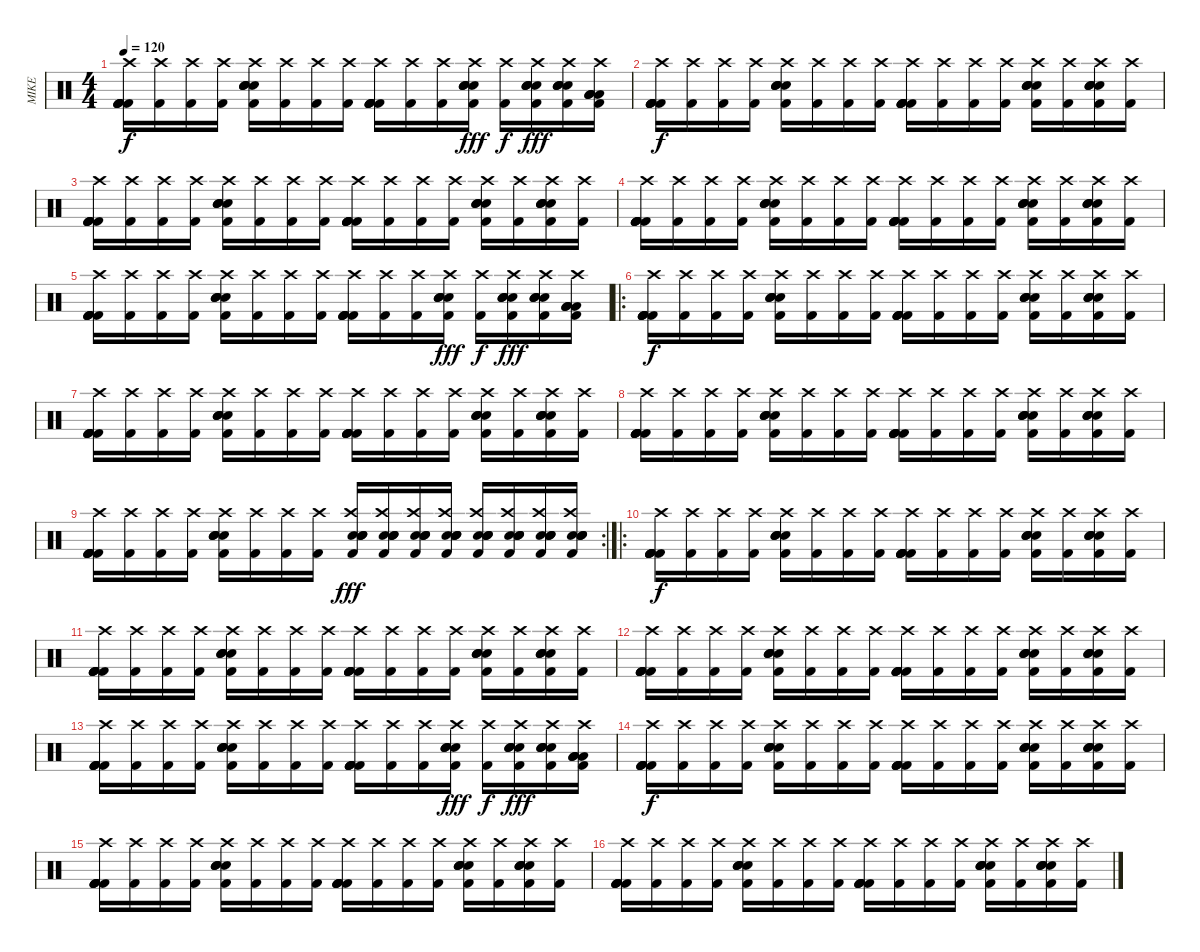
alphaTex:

\track ("MIKE" "MIKE") {instrument percussion}
\staff {score}
\articulation defaults
\ts (4 4)
\tempo 120
\clef neutral
\ks c
("Kick (hit) 2" "Kick (hit) 2" "Kick (hit) 2" "Kick (hit) 2" "Kick (hit) 2" "Crash high (hit)").16{dy f} ("Kick (hit) 2" "Crash high (hit)").16 ("Kick (hit) 2" "Crash high (hit)").16 ("Kick (hit) 2" "Crash high (hit)").16 ("Electric Snare (hit)" "Electric Snare (hit)" "Electric Snare (hit)" "Electric Snare (hit)" "Kick (hit) 2" "Crash high (hit)").16 ("Kick (hit) 2" "Crash high (hit)").16 ("Kick (hit) 2" "Crash high (hit)").16 ("Kick (hit) 2" "Crash high (hit)").16 ("Kick (hit) 2" "Kick (hit) 2" "Kick (hit) 2" "Kick (hit) 2" "Kick (hit) 2" "Crash high (hit)").16 ("Kick (hit) 2" "Crash high (hit)").16 ("Kick (hit) 2" "Crash high (hit)").16 ("Electric Snare (hit)" "Electric Snare (hit)" "Electric Snare (hit)" "Electric Snare (hit)" "Kick (hit) 2" "Crash high (hit)").16{dy fff} ("Kick (hit) 2" "Crash high (hit)").16{dy f} ("Electric Snare (hit)" "Electric Snare (hit)" "Electric Snare (hit)" "Electric Snare (hit)" "Kick (hit) 2" "Crash high (hit)").16{dy fff} ("Electric Snare (hit)" "Electric Snare (hit)" "Electric Snare (hit)" "Electric Snare (hit)" "Kick (hit) 2" "Crash high (hit)").16 ("Low Floor Tom (hit)" "Low Floor Tom (hit)" "Low Floor Tom (hit)" "Low Floor Tom (hit)" "Kick (hit) 2" "Crash high (hit)").16 |
("Kick (hit) 2" "Kick (hit) 2" "Kick (hit) 2" "Kick (hit) 2" "Kick (hit) 2" "Crash high (hit)").16{dy f} ("Kick (hit) 2" "Crash high (hit)").16 ("Kick (hit) 2" "Crash high (hit)").16 ("Kick (hit) 2" "Crash high (hit)").16 ("Electric Snare (hit)" "Electric Snare (hit)" "Electric Snare (hit)" "Electric Snare (hit)" "Kick (hit) 2" "Crash high (hit)").16 ("Kick (hit) 2" "Crash high (hit)").16 ("Kick (hit) 2" "Crash high (hit)").16 ("Kick (hit) 2" "Crash high (hit)").16 ("Kick (hit) 2" "Kick (hit) 2" "Kick (hit) 2" "Kick (hit) 2" "Kick (hit) 2" "Crash high (hit)").16 ("Kick (hit) 2" "Crash high (hit)").16 ("Kick (hit) 2" "Crash high (hit)").16 ("Kick (hit) 2" "Crash high (hit)").16 ("Electric Snare (hit)" "Electric Snare (hit)" "Electric Snare (hit)" "Electric Snare (hit)" "Kick (hit) 2" "Crash high (hit)").16 ("Kick (hit) 2" "Crash high (hit)").16 ("Electric Snare (hit)" "Electric Snare (hit)" "Electric Snare (hit)" "Electric Snare (hit)" "Kick (hit) 2" "Crash high (hit)").16 ("Kick (hit) 2" "Crash high (hit)").16 |
("Kick (hit) 2" "Kick (hit) 2" "Kick (hit) 2" "Kick (hit) 2" "Kick (hit) 2" "Crash high (hit)").16 ("Kick (hit) 2" "Crash high (hit)").16 ("Kick (hit) 2" "Crash high (hit)").16 ("Kick (hit) 2" "Crash high (hit)").16 ("Electric Snare (hit)" "Electric Snare (hit)" "Electric Snare (hit)" "Electric Snare (hit)" "Kick (hit) 2" "Crash high (hit)").16 ("Kick (hit) 2" "Crash high (hit)").16 ("Kick (hit) 2" "Crash high (hit)").16 ("Kick (hit) 2" "Crash high (hit)").16 ("Kick (hit) 2" "Kick (hit) 2" "Kick (hit) 2" "Kick (hit) 2" "Kick (hit) 2" "Crash high (hit)").16 ("Kick (hit) 2" "Crash high (hit)").16 ("Kick (hit) 2" "Crash high (hit)").16 ("Kick (hit) 2" "Crash high (hit)").16 ("Electric Snare (hit)" "Electric Snare (hit)" "Electric Snare (hit)" "Electric Snare (hit)" "Kick (hit) 2" "Crash high (hit)").16 ("Kick (hit) 2" "Crash high (hit)").16 ("Electric Snare (hit)" "Electric Snare (hit)" "Electric Snare (hit)" "Electric Snare (hit)" "Kick (hit) 2" "Crash high (hit)").16 ("Kick (hit) 2" "Crash high (hit)").16 |
("Kick (hit) 2" "Kick (hit) 2" "Kick (hit) 2" "Kick (hit) 2" "Kick (hit) 2" "Crash high (hit)").16 ("Kick (hit) 2" "Crash high (hit)").16 ("Kick (hit) 2" "Crash high (hit)").16 ("Kick (hit) 2" "Crash high (hit)").16 ("Electric Snare (hit)" "Electric Snare (hit)" "Electric Snare (hit)" "Electric Snare (hit)" "Kick (hit) 2" "Crash high (hit)").16 ("Kick (hit) 2" "Crash high (hit)").16 ("Kick (hit) 2" "Crash high (hit)").16 ("Kick (hit) 2" "Crash high (hit)").16 ("Kick (hit) 2" "Kick (hit) 2" "Kick (hit) 2" "Kick (hit) 2" "Kick (hit) 2" "Crash high (hit)").16 ("Kick (hit) 2" "Crash high (hit)").16 ("Kick (hit) 2" "Crash high (hit)").16 ("Kick (hit) 2" "Crash high (hit)").16 ("Electric Snare (hit)" "Electric Snare (hit)" "Electric Snare (hit)" "Electric Snare (hit)" "Kick (hit) 2" "Crash high (hit)").16 ("Kick (hit) 2" "Crash high (hit)").16 ("Electric Snare (hit)" "Electric Snare (hit)" "Electric Snare (hit)" "Electric Snare (hit)" "Kick (hit) 2" "Crash high (hit)").16 ("Kick (hit) 2" "Crash high (hit)").16 |
("Kick (hit) 2" "Kick (hit) 2" "Kick (hit) 2" "Kick (hit) 2" "Kick (hit) 2" "Crash high (hit)").16 ("Kick (hit) 2" "Crash high (hit)").16 ("Kick (hit) 2" "Crash high (hit)").16 ("Kick (hit) 2" "Crash high (hit)").16 ("Electric Snare (hit)" "Electric Snare (hit)" "Electric Snare (hit)" "Electric Snare (hit)" "Kick (hit) 2" "Crash high (hit)").16 ("Kick (hit) 2" "Crash high (hit)").16 ("Kick (hit) 2" "Crash high (hit)").16 ("Kick (hit) 2" "Crash high (hit)").16 ("Kick (hit) 2" "Kick (hit) 2" "Kick (hit) 2" "Kick (hit) 2" "Kick (hit) 2" "Crash high (hit)").16 ("Kick (hit) 2" "Crash high (hit)").16 ("Kick (hit) 2" "Crash high (hit)").16 ("Electric Snare (hit)" "Electric Snare (hit)" "Electric Snare (hit)" "Electric Snare (hit)" "Kick (hit) 2" "Crash high (hit)").16{dy fff} ("Kick (hit) 2" "Crash high (hit)").16{dy f} ("Electric Snare (hit)" "Electric Snare (hit)" "Electric Snare (hit)" "Electric Snare (hit)" "Kick (hit) 2" "Crash high (hit)").16{dy fff} ("Electric Snare (hit)" "Electric Snare (hit)" "Electric Snare (hit)" "Electric Snare (hit)" "Kick (hit) 2" "Crash high (hit)").16 ("Low Floor Tom (hit)" "Low Floor Tom (hit)" "Low Floor Tom (hit)" "Low Floor Tom (hit)" "Kick (hit) 2" "Crash high (hit)").16 |
\ro
("Kick (hit) 2" "Kick (hit) 2" "Kick (hit) 2" "Kick (hit) 2" "Kick (hit) 2" "Crash high (hit)").16{dy f} ("Kick (hit) 2" "Crash high (hit)").16 ("Kick (hit) 2" "Crash high (hit)").16 ("Kick (hit) 2" "Crash high (hit)").16 ("Electric Snare (hit)" "Electric Snare (hit)" "Electric Snare (hit)" "Electric Snare (hit)" "Kick (hit) 2" "Crash high (hit)").16 ("Kick (hit) 2" "Crash high (hit)").16 ("Kick (hit) 2" "Crash high (hit)").16 ("Kick (hit) 2" "Crash high (hit)").16 ("Kick (hit) 2" "Kick (hit) 2" "Kick (hit) 2" "Kick (hit) 2" "Kick (hit) 2" "Crash high (hit)").16 ("Kick (hit) 2" "Crash high (hit)").16 ("Kick (hit) 2" "Crash high (hit)").16 ("Kick (hit) 2" "Crash high (hit)").16 ("Electric Snare (hit)" "Electric Snare (hit)" "Electric Snare (hit)" "Electric Snare (hit)" "Kick (hit) 2" "Crash high (hit)").16 ("Kick (hit) 2" "Crash high (hit)").16 ("Electric Snare (hit)" "Electric Snare (hit)" "Electric Snare (hit)" "Electric Snare (hit)" "Kick (hit) 2" "Crash high (hit)").16 ("Kick (hit) 2" "Crash high (hit)").16 |
("Kick (hit) 2" "Kick (hit) 2" "Kick (hit) 2" "Kick (hit) 2" "Kick (hit) 2" "Crash high (hit)").16 ("Kick (hit) 2" "Crash high (hit)").16 ("Kick (hit) 2" "Crash high (hit)").16 ("Kick (hit) 2" "Crash high (hit)").16 ("Electric Snare (hit)" "Electric Snare (hit)" "Electric Snare (hit)" "Electric Snare (hit)" "Kick (hit) 2" "Crash high (hit)").16 ("Kick (hit) 2" "Crash high (hit)").16 ("Kick (hit) 2" "Crash high (hit)").16 ("Kick (hit) 2" "Crash high (hit)").16 ("Kick (hit) 2" "Kick (hit) 2" "Kick (hit) 2" "Kick (hit) 2" "Kick (hit) 2" "Crash high (hit)").16 ("Kick (hit) 2" "Crash high (hit)").16 ("Kick (hit) 2" "Crash high (hit)").16 ("Kick (hit) 2" "Crash high (hit)").16 ("Electric Snare (hit)" "Electric Snare (hit)" "Electric Snare (hit)" "Electric Snare (hit)" "Kick (hit) 2" "Crash high (hit)").16 ("Kick (hit) 2" "Crash high (hit)").16 ("Electric Snare (hit)" "Electric Snare (hit)" "Electric Snare (hit)" "Electric Snare (hit)" "Kick (hit) 2" "Crash high (hit)").16 ("Kick (hit) 2" "Crash high (hit)").16 |
("Kick (hit) 2" "Kick (hit) 2" "Kick (hit) 2" "Kick (hit) 2" "Kick (hit) 2" "Crash high (hit)").16 ("Kick (hit) 2" "Crash high (hit)").16 ("Kick (hit) 2" "Crash high (hit)").16 ("Kick (hit) 2" "Crash high (hit)").16 ("Electric Snare (hit)" "Electric Snare (hit)" "Electric Snare (hit)" "Electric Snare (hit)" "Kick (hit) 2" "Crash high (hit)").16 ("Kick (hit) 2" "Crash high (hit)").16 ("Kick (hit) 2" "Crash high (hit)").16 ("Kick (hit) 2" "Crash high (hit)").16 ("Kick (hit) 2" "Kick (hit) 2" "Kick (hit) 2" "Kick (hit) 2" "Kick (hit) 2" "Crash high (hit)").16 ("Kick (hit) 2" "Crash high (hit)").16 ("Kick (hit) 2" "Crash high (hit)").16 ("Kick (hit) 2" "Crash high (hit)").16 ("Electric Snare (hit)" "Electric Snare (hit)" "Electric Snare (hit)" "Electric Snare (hit)" "Kick (hit) 2" "Crash high (hit)").16 ("Kick (hit) 2" "Crash high (hit)").16 ("Electric Snare (hit)" "Electric Snare (hit)" "Electric Snare (hit)" "Electric Snare (hit)" "Kick (hit) 2" "Crash high (hit)").16 ("Kick (hit) 2" "Crash high (hit)").16 |
\rc 2
("Kick (hit) 2" "Kick (hit) 2" "Kick (hit) 2" "Kick (hit) 2" "Kick (hit) 2" "Crash high (hit)").16 ("Kick (hit) 2" "Crash high (hit)").16 ("Kick (hit) 2" "Crash high (hit)").16 ("Kick (hit) 2" "Crash high (hit)").16 ("Electric Snare (hit)" "Electric Snare (hit)" "Electric Snare (hit)" "Electric Snare (hit)" "Kick (hit) 2" "Crash high (hit)").16 ("Kick (hit) 2" "Crash high (hit)").16 ("Kick (hit) 2" "Crash high (hit)").16 ("Kick (hit) 2" "Crash high (hit)").16 ("Electric Snare (hit)" "Electric Snare (hit)" "Electric Snare (hit)" "Electric Snare (hit)" "Kick (hit) 2" "Crash high (hit)").16{dy fff} ("Electric Snare (hit)" "Electric Snare (hit)" "Electric Snare (hit)" "Electric Snare (hit)" "Kick (hit) 2" "Crash high (hit)").16 ("Electric Snare (hit)" "Electric Snare (hit)" "Electric Snare (hit)" "Electric Snare (hit)" "Kick (hit) 2" "Crash high (hit)").16 ("Electric Snare (hit)" "Electric Snare (hit)" "Electric Snare (hit)" "Electric Snare (hit)" "Kick (hit) 2" "Crash high (hit)").16 ("Electric Snare (hit)" "Electric Snare (hit)" "Electric Snare (hit)" "Electric Snare (hit)" "Kick (hit) 2" "Crash high (hit)").16 ("Electric Snare (hit)" "Electric Snare (hit)" "Electric Snare (hit)" "Electric Snare (hit)" "Kick (hit) 2" "Crash high (hit)").16 ("Electric Snare (hit)" "Electric Snare (hit)" "Electric Snare (hit)" "Electric Snare (hit)" "Kick (hit) 2" "Crash high (hit)").16 ("Electric Snare (hit)" "Electric Snare (hit)" "Electric Snare (hit)" "Electric Snare (hit)" "Kick (hit) 2" "Crash high (hit)").16 |
\ro
("Kick (hit) 2" "Kick (hit) 2" "Kick (hit) 2" "Kick (hit) 2" "Kick (hit) 2" "Crash high (hit)").16{dy f} ("Kick (hit) 2" "Crash high (hit)").16 ("Kick (hit) 2" "Crash high (hit)").16 ("Kick (hit) 2" "Crash high (hit)").16 ("Electric Snare (hit)" "Electric Snare (hit)" "Electric Snare (hit)" "Electric Snare (hit)" "Kick (hit) 2" "Crash high (hit)").16 ("Kick (hit) 2" "Crash high (hit)").16 ("Kick (hit) 2" "Crash high (hit)").16 ("Kick (hit) 2" "Crash high (hit)").16 ("Kick (hit) 2" "Kick (hit) 2" "Kick (hit) 2" "Kick (hit) 2" "Kick (hit) 2" "Crash high (hit)").16 ("Kick (hit) 2" "Crash high (hit)").16 ("Kick (hit) 2" "Crash high (hit)").16 ("Kick (hit) 2" "Crash high (hit)").16 ("Electric Snare (hit)" "Electric Snare (hit)" "Electric Snare (hit)" "Electric Snare (hit)" "Kick (hit) 2" "Crash high (hit)").16 ("Kick (hit) 2" "Crash high (hit)").16 ("Electric Snare (hit)" "Electric Snare (hit)" "Electric Snare (hit)" "Electric Snare (hit)" "Kick (hit) 2" "Crash high (hit)").16 ("Kick (hit) 2" "Crash high (hit)").16 |
("Kick (hit) 2" "Kick (hit) 2" "Kick (hit) 2" "Kick (hit) 2" "Kick (hit) 2" "Crash high (hit)").16 ("Kick (hit) 2" "Crash high (hit)").16 ("Kick (hit) 2" "Crash high (hit)").16 ("Kick (hit) 2" "Crash high (hit)").16 ("Electric Snare (hit)" "Electric Snare (hit)" "Electric Snare (hit)" "Electric Snare (hit)" "Kick (hit) 2" "Crash high (hit)").16 ("Kick (hit) 2" "Crash high (hit)").16 ("Kick (hit) 2" "Crash high (hit)").16 ("Kick (hit) 2" "Crash high (hit)").16 ("Kick (hit) 2" "Kick (hit) 2" "Kick (hit) 2" "Kick (hit) 2" "Kick (hit) 2" "Crash high (hit)").16 ("Kick (hit) 2" "Crash high (hit)").16 ("Kick (hit) 2" "Crash high (hit)").16 ("Kick (hit) 2" "Crash high (hit)").16 ("Electric Snare (hit)" "Electric Snare (hit)" "Electric Snare (hit)" "Electric Snare (hit)" "Kick (hit) 2" "Crash high (hit)").16 ("Kick (hit) 2" "Crash high (hit)").16 ("Electric Snare (hit)" "Electric Snare (hit)" "Electric Snare (hit)" "Electric Snare (hit)" "Kick (hit) 2" "Crash high (hit)").16 ("Kick (hit) 2" "Crash high (hit)").16 |
("Kick (hit) 2" "Kick (hit) 2" "Kick (hit) 2" "Kick (hit) 2" "Kick (hit) 2" "Crash high (hit)").16 ("Kick (hit) 2" "Crash high (hit)").16 ("Kick (hit) 2" "Crash high (hit)").16 ("Kick (hit) 2" "Crash high (hit)").16 ("Electric Snare (hit)" "Electric Snare (hit)" "Electric Snare (hit)" "Electric Snare (hit)" "Kick (hit) 2" "Crash high (hit)").16 ("Kick (hit) 2" "Crash high (hit)").16 ("Kick (hit) 2" "Crash high (hit)").16 ("Kick (hit) 2" "Crash high (hit)").16 ("Kick (hit) 2" "Kick (hit) 2" "Kick (hit) 2" "Kick (hit) 2" "Kick (hit) 2" "Crash high (hit)").16 ("Kick (hit) 2" "Crash high (hit)").16 ("Kick (hit) 2" "Crash high (hit)").16 ("Kick (hit) 2" "Crash high (hit)").16 ("Electric Snare (hit)" "Electric Snare (hit)" "Electric Snare (hit)" "Electric Snare (hit)" "Kick (hit) 2" "Crash high (hit)").16 ("Kick (hit) 2" "Crash high (hit)").16 ("Electric Snare (hit)" "Electric Snare (hit)" "Electric Snare (hit)" "Electric Snare (hit)" "Kick (hit) 2" "Crash high (hit)").16 ("Kick (hit) 2" "Crash high (hit)").16 |
("Kick (hit) 2" "Kick (hit) 2" "Kick (hit) 2" "Kick (hit) 2" "Kick (hit) 2" "Crash high (hit)").16 ("Kick (hit) 2" "Crash high (hit)").16 ("Kick (hit) 2" "Crash high (hit)").16 ("Kick (hit) 2" "Crash high (hit)").16 ("Electric Snare (hit)" "Electric Snare (hit)" "Electric Snare (hit)" "Electric Snare (hit)" "Kick (hit) 2" "Crash high (hit)").16 ("Kick (hit) 2" "Crash high (hit)").16 ("Kick (hit) 2" "Crash high (hit)").16 ("Kick (hit) 2" "Crash high (hit)").16 ("Kick (hit) 2" "Kick (hit) 2" "Kick (hit) 2" "Kick (hit) 2" "Kick (hit) 2" "Crash high (hit)").16 ("Kick (hit) 2" "Crash high (hit)").16 ("Kick (hit) 2" "Crash high (hit)").16 ("Electric Snare (hit)" "Electric Snare (hit)" "Electric Snare (hit)" "Electric Snare (hit)" "Kick (hit) 2" "Crash high (hit)").16{dy fff} ("Kick (hit) 2" "Crash high (hit)").16{dy f} ("Electric Snare (hit)" "Electric Snare (hit)" "Electric Snare (hit)" "Electric Snare (hit)" "Kick (hit) 2" "Crash high (hit)").16{dy fff} ("Electric Snare (hit)" "Electric Snare (hit)" "Electric Snare (hit)" "Electric Snare (hit)" "Kick (hit) 2" "Crash high (hit)").16 ("Low Floor Tom (hit)" "Low Floor Tom (hit)" "Low Floor Tom (hit)" "Low Floor Tom (hit)" "Kick (hit) 2" "Crash high (hit)").16 |
("Kick (hit) 2" "Kick (hit) 2" "Kick (hit) 2" "Kick (hit) 2" "Kick (hit) 2" "Crash high (hit)").16{dy f} ("Kick (hit) 2" "Crash high (hit)").16 ("Kick (hit) 2" "Crash high (hit)").16 ("Kick (hit) 2" "Crash high (hit)").16 ("Electric Snare (hit)" "Electric Snare (hit)" "Electric Snare (hit)" "Electric Snare (hit)" "Kick (hit) 2" "Crash high (hit)").16 ("Kick (hit) 2" "Crash high (hit)").16 ("Kick (hit) 2" "Crash high (hit)").16 ("Kick (hit) 2" "Crash high (hit)").16 ("Kick (hit) 2" "Kick (hit) 2" "Kick (hit) 2" "Kick (hit) 2" "Kick (hit) 2" "Crash high (hit)").16 ("Kick (hit) 2" "Crash high (hit)").16 ("Kick (hit) 2" "Crash high (hit)").16 ("Kick (hit) 2" "Crash high (hit)").16 ("Electric Snare (hit)" "Electric Snare (hit)" "Electric Snare (hit)" "Electric Snare (hit)" "Kick (hit) 2" "Crash high (hit)").16 ("Kick (hit) 2" "Crash high (hit)").16 ("Electric Snare (hit)" "Electric Snare (hit)" "Electric Snare (hit)" "Electric Snare (hit)" "Kick (hit) 2" "Crash high (hit)").16 ("Kick (hit) 2" "Crash high (hit)").16 |
("Kick (hit) 2" "Kick (hit) 2" "Kick (hit) 2" "Kick (hit) 2" "Kick (hit) 2" "Crash high (hit)").16 ("Kick (hit) 2" "Crash high (hit)").16 ("Kick (hit) 2" "Crash high (hit)").16 ("Kick (hit) 2" "Crash high (hit)").16 ("Electric Snare (hit)" "Electric Snare (hit)" "Electric Snare (hit)" "Electric Snare (hit)" "Kick (hit) 2" "Crash high (hit)").16 ("Kick (hit) 2" "Crash high (hit)").16 ("Kick (hit) 2" "Crash high (hit)").16 ("Kick (hit) 2" "Crash high (hit)").16 ("Kick (hit) 2" "Kick (hit) 2" "Kick (hit) 2" "Kick (hit) 2" "Kick (hit) 2" "Crash high (hit)").16 ("Kick (hit) 2" "Crash high (hit)").16 ("Kick (hit) 2" "Crash high (hit)").16 ("Kick (hit) 2" "Crash high (hit)").16 ("Electric Snare (hit)" "Electric Snare (hit)" "Electric Snare (hit)" "Electric Snare (hit)" "Kick (hit) 2" "Crash high (hit)").16 ("Kick (hit) 2" "Crash high (hit)").16 ("Electric Snare (hit)" "Electric Snare (hit)" "Electric Snare (hit)" "Electric Snare (hit)" "Kick (hit) 2" "Crash high (hit)").16 ("Kick (hit) 2" "Crash high (hit)").16 |
("Kick (hit) 2" "Kick (hit) 2" "Kick (hit) 2" "Kick (hit) 2" "Kick (hit) 2" "Crash high (hit)").16 ("Kick (hit) 2" "Crash high (hit)").16 ("Kick (hit) 2" "Crash high (hit)").16 ("Kick (hit) 2" "Crash high (hit)").16 ("Electric Snare (hit)" "Electric Snare (hit)" "Electric Snare (hit)" "Electric Snare (hit)" "Kick (hit) 2" "Crash high (hit)").16 ("Kick (hit) 2" "Crash high (hit)").16 ("Kick (hit) 2" "Crash high (hit)").16 ("Kick (hit) 2" "Crash high (hit)").16 ("Kick (hit) 2" "Kick (hit) 2" "Kick (hit) 2" "Kick (hit) 2" "Kick (hit) 2" "Crash high (hit)").16 ("Kick (hit) 2" "Crash high (hit)").16 ("Kick (hit) 2" "Crash high (hit)").16 ("Kick (hit) 2" "Crash high (hit)").16 ("Electric Snare (hit)" "Electric Snare (hit)" "Electric Snare (hit)" "Electric Snare (hit)" "Kick (hit) 2" "Crash high (hit)").16 ("Kick (hit) 2" "Crash high (hit)").16 ("Electric Snare (hit)" "Electric Snare (hit)" "Electric Snare (hit)" "Electric Snare (hit)" "Kick (hit) 2" "Crash high (hit)").16 ("Kick (hit) 2" "Crash high (hit)").16
